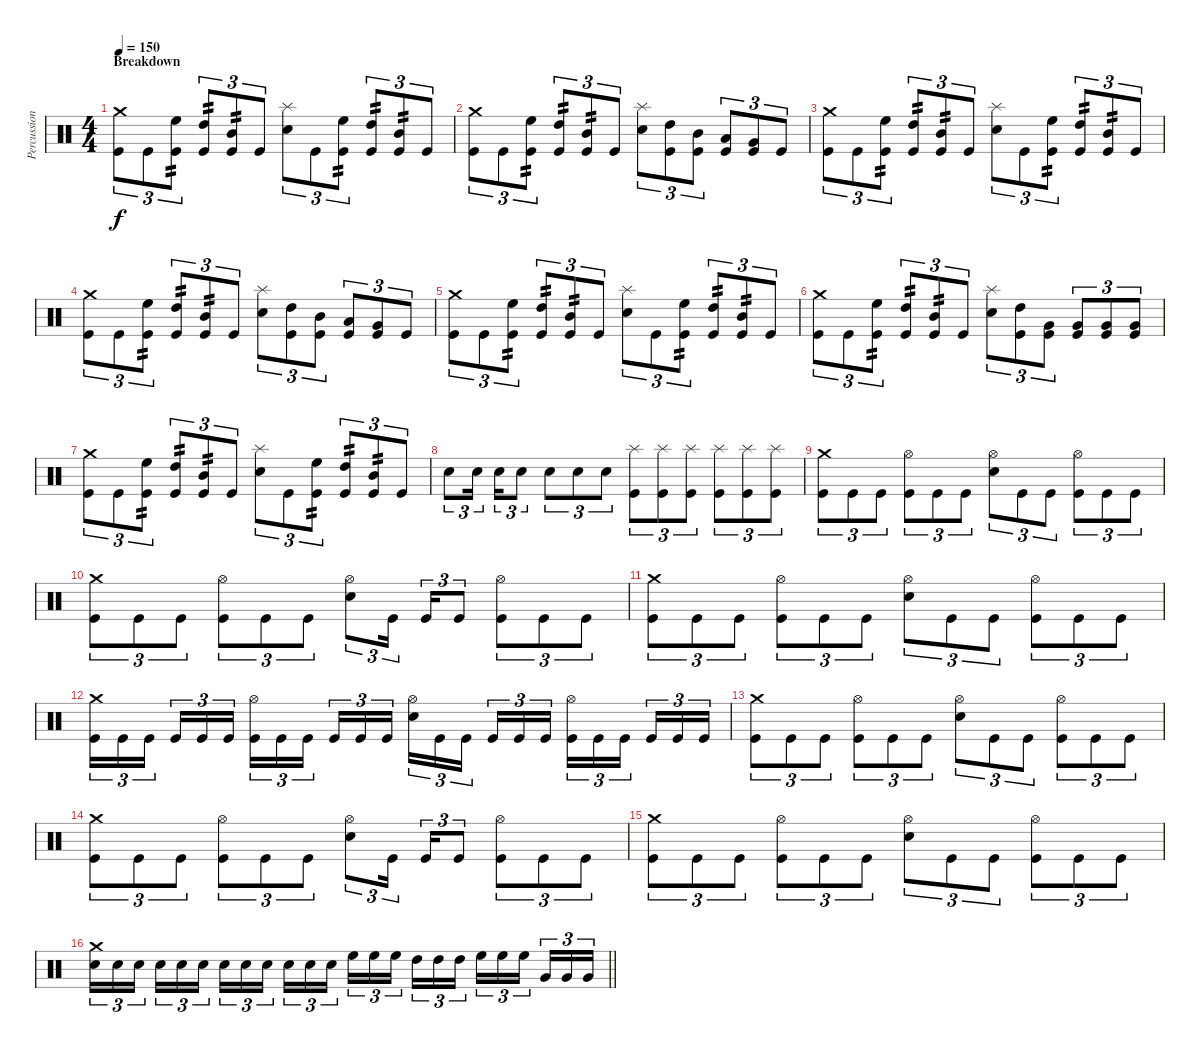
\track ("Percussion" "Percussion") {instrument percussion}
\staff {score}
\articulation defaults
\ts (4 4)
\section ("" "Breakdown")
\tempo 150
\clef neutral
\ks c
("Crash medium (hit)" "Kick (hit)").8{tu (3 2) dy f} "Kick (hit)".8{tu (3 2)} ("High Floor Tom (hit)" "Kick (hit)").8{tu (3 2) tp 2} ("High Tom (hit)" "Kick (hit)").8{tu (3 2) tp 2} ("Mid Tom (hit)" "Kick (hit)").8{tu (3 2) tp 2} "Kick (hit)".8{tu (3 2)} ("Splash (hit)" "Snare (hit) 2").8{tu (3 2)} "Kick (hit)".8{tu (3 2)} ("High Floor Tom (hit)" "Kick (hit)").8{tu (3 2) tp 2} ("High Tom (hit)" "Kick (hit)").8{tu (3 2) tp 2} ("Mid Tom (hit)" "Kick (hit)").8{tu (3 2) tp 2} "Kick (hit)".8{tu (3 2)} |
("Crash medium (hit)" "Kick (hit)").8{tu (3 2)} "Kick (hit)".8{tu (3 2)} ("High Floor Tom (hit)" "Kick (hit)").8{tu (3 2) tp 2} ("High Tom (hit)" "Kick (hit)").8{tu (3 2) tp 2} ("Mid Tom (hit)" "Kick (hit)").8{tu (3 2) tp 2} "Kick (hit)".8{tu (3 2)} ("Splash (hit)" "Snare (hit) 2").8{tu (3 2)} ("High Tom (hit)" "Kick (hit)").8{tu (3 2)} ("Mid Tom (hit)" "Kick (hit)").8{tu (3 2)} ("Low Tom (hit)" "Kick (hit)").8{tu (3 2)} ("Very Low Tom (hit)" "Kick (hit)").8{tu (3 2)} "Kick (hit)".8{tu (3 2)} |
("Crash medium (hit)" "Kick (hit)").8{tu (3 2)} "Kick (hit)".8{tu (3 2)} ("High Floor Tom (hit)" "Kick (hit)").8{tu (3 2) tp 2} ("High Tom (hit)" "Kick (hit)").8{tu (3 2) tp 2} ("Mid Tom (hit)" "Kick (hit)").8{tu (3 2) tp 2} "Kick (hit)".8{tu (3 2)} ("Splash (hit)" "Snare (hit) 2").8{tu (3 2)} "Kick (hit)".8{tu (3 2)} ("High Floor Tom (hit)" "Kick (hit)").8{tu (3 2) tp 2} ("High Tom (hit)" "Kick (hit)").8{tu (3 2) tp 2} ("Mid Tom (hit)" "Kick (hit)").8{tu (3 2) tp 2} "Kick (hit)".8{tu (3 2)} |
("Crash medium (hit)" "Kick (hit)").8{tu (3 2)} "Kick (hit)".8{tu (3 2)} ("High Floor Tom (hit)" "Kick (hit)").8{tu (3 2) tp 2} ("High Tom (hit)" "Kick (hit)").8{tu (3 2) tp 2} ("Mid Tom (hit)" "Kick (hit)").8{tu (3 2) tp 2} "Kick (hit)".8{tu (3 2)} ("Splash (hit)" "Snare (hit) 2").8{tu (3 2)} ("High Tom (hit)" "Kick (hit)").8{tu (3 2)} ("Mid Tom (hit)" "Kick (hit)").8{tu (3 2)} ("Low Tom (hit)" "Kick (hit)").8{tu (3 2)} ("Very Low Tom (hit)" "Kick (hit)").8{tu (3 2)} "Kick (hit)".8{tu (3 2)} |
("Crash medium (hit)" "Kick (hit)").8{tu (3 2)} "Kick (hit)".8{tu (3 2)} ("High Floor Tom (hit)" "Kick (hit)").8{tu (3 2) tp 2} ("High Tom (hit)" "Kick (hit)").8{tu (3 2) tp 2} ("Mid Tom (hit)" "Kick (hit)").8{tu (3 2) tp 2} "Kick (hit)".8{tu (3 2)} ("Splash (hit)" "Snare (hit) 2").8{tu (3 2)} "Kick (hit)".8{tu (3 2)} ("High Floor Tom (hit)" "Kick (hit)").8{tu (3 2) tp 2} ("High Tom (hit)" "Kick (hit)").8{tu (3 2) tp 2} ("Mid Tom (hit)" "Kick (hit)").8{tu (3 2) tp 2} "Kick (hit)".8{tu (3 2)} |
("Crash medium (hit)" "Kick (hit)").8{tu (3 2)} "Kick (hit)".8{tu (3 2)} ("High Floor Tom (hit)" "Kick (hit)").8{tu (3 2) tp 2} ("High Tom (hit)" "Kick (hit)").8{tu (3 2) tp 2} ("Mid Tom (hit)" "Kick (hit)").8{tu (3 2) tp 2} "Kick (hit)".8{tu (3 2)} ("Splash (hit)" "Snare (hit) 2").8{tu (3 2)} ("High Tom (hit)" "Kick (hit)").8{tu (3 2)} ("Very Low Tom (hit)" "Kick (hit)").8{tu (3 2)} ("Very Low Tom (hit)" "Kick (hit)").8{tu (3 2)} ("Very Low Tom (hit)" "Kick (hit)").8{tu (3 2)} ("Very Low Tom (hit)" "Kick (hit)").8{tu (3 2)} |
("Crash medium (hit)" "Kick (hit)").8{tu (3 2)} "Kick (hit)".8{tu (3 2)} ("High Floor Tom (hit)" "Kick (hit)").8{tu (3 2) tp 2} ("High Tom (hit)" "Kick (hit)").8{tu (3 2) tp 2} ("Mid Tom (hit)" "Kick (hit)").8{tu (3 2) tp 2} "Kick (hit)".8{tu (3 2)} ("Splash (hit)" "Snare (hit) 2").8{tu (3 2)} "Kick (hit)".8{tu (3 2)} ("High Floor Tom (hit)" "Kick (hit)").8{tu (3 2) tp 2} ("High Tom (hit)" "Kick (hit)").8{tu (3 2) tp 2} ("Mid Tom (hit)" "Kick (hit)").8{tu (3 2) tp 2} "Kick (hit)".8{tu (3 2)} |
"Snare (hit) 2".8{tu (3 2)} "Snare (hit) 2".16{tu (3 2) beam splitsecondary} "Snare (hit) 2".16{tu (3 2)} "Snare (hit) 2".8{tu (3 2)} "Snare (hit) 2".8{tu (3 2)} "Snare (hit) 2".8{tu (3 2)} "Snare (hit) 2".8{tu (3 2)} ("Splash (hit)" "Kick (hit)").8{tu (3 2)} ("Splash (hit)" "Kick (hit)").8{tu (3 2)} ("Splash (hit)" "Kick (hit)").8{tu (3 2)} ("Splash (hit)" "Kick (hit)").8{tu (3 2)} ("Splash (hit)" "Kick (hit)").8{tu (3 2)} ("Splash (hit)" "Kick (hit)").8{tu (3 2)} |
("Crash medium (hit)" "Kick (hit)").8{tu (3 2)} "Kick (hit)".8{tu (3 2)} "Kick (hit)".8{tu (3 2)} ("Hi-Hat (open)" "Kick (hit)").8{tu (3 2)} "Kick (hit)".8{tu (3 2)} "Kick (hit)".8{tu (3 2)} ("Hi-Hat (open)" "Snare (hit) 2").8{tu (3 2)} "Kick (hit)".8{tu (3 2)} "Kick (hit)".8{tu (3 2)} ("Hi-Hat (open)" "Kick (hit)").8{tu (3 2)} "Kick (hit)".8{tu (3 2)} "Kick (hit)".8{tu (3 2)} |
("Crash medium (hit)" "Kick (hit)").8{tu (3 2)} "Kick (hit)".8{tu (3 2)} "Kick (hit)".8{tu (3 2)} ("Hi-Hat (open)" "Kick (hit)").8{tu (3 2)} "Kick (hit)".8{tu (3 2)} "Kick (hit)".8{tu (3 2)} ("Hi-Hat (open)" "Snare (hit) 2").8{tu (3 2)} "Kick (hit)".16{tu (3 2) beam splitsecondary} "Kick (hit)".16{tu (3 2)} "Kick (hit)".8{tu (3 2)} ("Hi-Hat (open)" "Kick (hit)").8{tu (3 2)} "Kick (hit)".8{tu (3 2)} "Kick (hit)".8{tu (3 2)} |
("Crash medium (hit)" "Kick (hit)").8{tu (3 2)} "Kick (hit)".8{tu (3 2)} "Kick (hit)".8{tu (3 2)} ("Hi-Hat (open)" "Kick (hit)").8{tu (3 2)} "Kick (hit)".8{tu (3 2)} "Kick (hit)".8{tu (3 2)} ("Hi-Hat (open)" "Snare (hit) 2").8{tu (3 2)} "Kick (hit)".8{tu (3 2)} "Kick (hit)".8{tu (3 2)} ("Hi-Hat (open)" "Kick (hit)").8{tu (3 2)} "Kick (hit)".8{tu (3 2)} "Kick (hit)".8{tu (3 2)} |
("Crash medium (hit)" "Kick (hit)").16{tu (3 2)} "Kick (hit)".16{tu (3 2)} "Kick (hit)".16{tu (3 2) beam splitsecondary} "Kick (hit)".16{tu (3 2)} "Kick (hit)".16{tu (3 2)} "Kick (hit)".16{tu (3 2)} ("Hi-Hat (open)" "Kick (hit)").16{tu (3 2)} "Kick (hit)".16{tu (3 2)} "Kick (hit)".16{tu (3 2) beam splitsecondary} "Kick (hit)".16{tu (3 2)} "Kick (hit)".16{tu (3 2)} "Kick (hit)".16{tu (3 2)} ("Hi-Hat (open)" "Snare (hit) 2").16{tu (3 2)} "Kick (hit)".16{tu (3 2)} "Kick (hit)".16{tu (3 2) beam splitsecondary} "Kick (hit)".16{tu (3 2)} "Kick (hit)".16{tu (3 2)} "Kick (hit)".16{tu (3 2)} ("Hi-Hat (open)" "Kick (hit)").16{tu (3 2)} "Kick (hit)".16{tu (3 2)} "Kick (hit)".16{tu (3 2) beam splitsecondary} "Kick (hit)".16{tu (3 2)} "Kick (hit)".16{tu (3 2)} "Kick (hit)".16{tu (3 2)} |
("Crash medium (hit)" "Kick (hit)").8{tu (3 2)} "Kick (hit)".8{tu (3 2)} "Kick (hit)".8{tu (3 2)} ("Hi-Hat (open)" "Kick (hit)").8{tu (3 2)} "Kick (hit)".8{tu (3 2)} "Kick (hit)".8{tu (3 2)} ("Hi-Hat (open)" "Snare (hit) 2").8{tu (3 2)} "Kick (hit)".8{tu (3 2)} "Kick (hit)".8{tu (3 2)} ("Hi-Hat (open)" "Kick (hit)").8{tu (3 2)} "Kick (hit)".8{tu (3 2)} "Kick (hit)".8{tu (3 2)} |
("Crash medium (hit)" "Kick (hit)").8{tu (3 2)} "Kick (hit)".8{tu (3 2)} "Kick (hit)".8{tu (3 2)} ("Hi-Hat (open)" "Kick (hit)").8{tu (3 2)} "Kick (hit)".8{tu (3 2)} "Kick (hit)".8{tu (3 2)} ("Hi-Hat (open)" "Snare (hit) 2").8{tu (3 2)} "Kick (hit)".16{tu (3 2) beam splitsecondary} "Kick (hit)".16{tu (3 2)} "Kick (hit)".8{tu (3 2)} ("Hi-Hat (open)" "Kick (hit)").8{tu (3 2)} "Kick (hit)".8{tu (3 2)} "Kick (hit)".8{tu (3 2)} |
("Crash medium (hit)" "Kick (hit)").8{tu (3 2)} "Kick (hit)".8{tu (3 2)} "Kick (hit)".8{tu (3 2)} ("Hi-Hat (open)" "Kick (hit)").8{tu (3 2)} "Kick (hit)".8{tu (3 2)} "Kick (hit)".8{tu (3 2)} ("Hi-Hat (open)" "Snare (hit) 2").8{tu (3 2)} "Kick (hit)".8{tu (3 2)} "Kick (hit)".8{tu (3 2)} ("Hi-Hat (open)" "Kick (hit)").8{tu (3 2)} "Kick (hit)".8{tu (3 2)} "Kick (hit)".8{tu (3 2)} |
\barLineRight lightlight
("Crash medium (hit)" "Snare (hit) 2").16{tu (3 2)} "Snare (hit) 2".16{tu (3 2)} "Snare (hit) 2".16{tu (3 2) beam splitsecondary} "Snare (hit) 2".16{tu (3 2)} "Snare (hit) 2".16{tu (3 2)} "Snare (hit) 2".16{tu (3 2)} "Snare (hit) 2".16{tu (3 2)} "Snare (hit) 2".16{tu (3 2)} "Snare (hit) 2".16{tu (3 2) beam splitsecondary} "Snare (hit) 2".16{tu (3 2)} "Snare (hit) 2".16{tu (3 2)} "Snare (hit) 2".16{tu (3 2)} "High Floor Tom (hit)".16{tu (3 2)} "High Floor Tom (hit)".16{tu (3 2)} "High Floor Tom (hit)".16{tu (3 2) beam splitsecondary} "High Tom (hit)".16{tu (3 2)} "High Tom (hit)".16{tu (3 2)} "High Tom (hit)".16{tu (3 2)} "High Floor Tom (hit)".16{tu (3 2)} "High Floor Tom (hit)".16{tu (3 2)} "High Floor Tom (hit)".16{tu (3 2) beam splitsecondary} "Very Low Tom (hit)".16{tu (3 2)} "Very Low Tom (hit)".16{tu (3 2)} "Very Low Tom (hit)".16{tu (3 2)}
